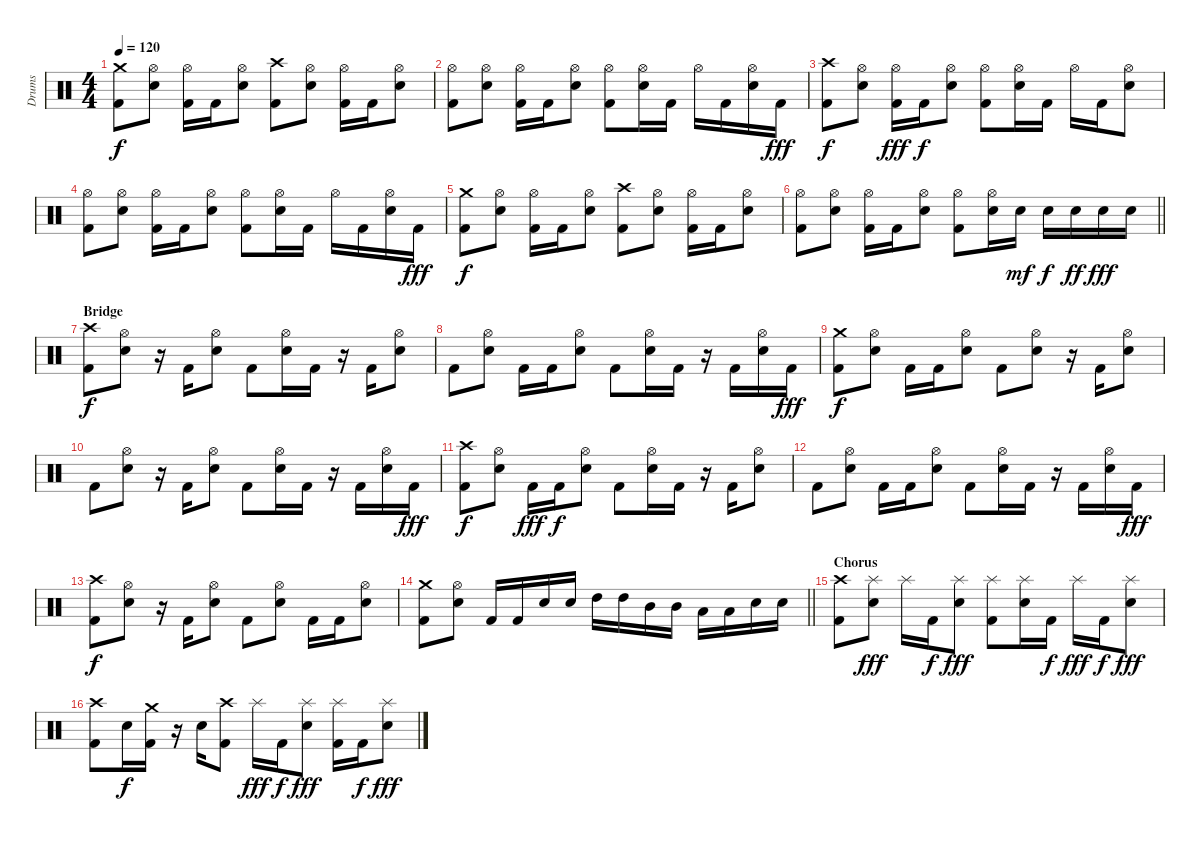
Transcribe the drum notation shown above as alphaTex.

\track ("Drums" "Drums") {instrument percussion}
\staff {score}
\articulation defaults
\ts (4 4)
\tempo 120
\clef neutral
\ks c
("Crash medium (hit)" "Kick (hit) 2").8{dy f} ("Hi-Hat (open)" "Snare (hit) 2").8 ("Hi-Hat (open)" "Kick (hit) 2").16 "Kick (hit) 2".16 ("Hi-Hat (open)" "Snare (hit) 2").8 ("Crash high (hit)" "Kick (hit) 2").8 ("Hi-Hat (open)" "Snare (hit) 2").8 ("Hi-Hat (open)" "Kick (hit) 2").16 "Kick (hit) 2".16 ("Hi-Hat (open)" "Snare (hit) 2").8 |
("Hi-Hat (open)" "Kick (hit) 2").8 ("Hi-Hat (open)" "Snare (hit) 2").8 ("Hi-Hat (open)" "Kick (hit) 2").16 "Kick (hit) 2".16 ("Hi-Hat (open)" "Snare (hit) 2").8 ("Hi-Hat (open)" "Kick (hit) 2").8 ("Hi-Hat (open)" "Snare (hit) 2").16 "Kick (hit) 2".16 "Hi-Hat (open)".16 "Kick (hit) 2".16 ("Hi-Hat (open)" "Snare (hit) 2").16 "Kick (hit) 2".16{dy fff} |
("Crash high (hit)" "Kick (hit) 2").8{dy f} ("Hi-Hat (open)" "Snare (hit) 2").8 ("Hi-Hat (open)" "Kick (hit) 2").16{dy fff} "Kick (hit) 2".16{dy f} ("Hi-Hat (open)" "Snare (hit) 2").8 ("Hi-Hat (open)" "Kick (hit) 2").8 ("Hi-Hat (open)" "Snare (hit) 2").16 "Kick (hit) 2".16 "Hi-Hat (open)".16 "Kick (hit) 2".16 ("Hi-Hat (open)" "Snare (hit) 2").8 |
("Hi-Hat (open)" "Kick (hit) 2").8 ("Hi-Hat (open)" "Snare (hit) 2").8 ("Hi-Hat (open)" "Kick (hit) 2").16 "Kick (hit) 2".16 ("Hi-Hat (open)" "Snare (hit) 2").8 ("Hi-Hat (open)" "Kick (hit) 2").8 ("Hi-Hat (open)" "Snare (hit) 2").16 "Kick (hit) 2".16 "Hi-Hat (open)".16 "Kick (hit) 2".16 ("Hi-Hat (open)" "Snare (hit) 2").16 "Kick (hit) 2".16{dy fff} |
("Crash medium (hit)" "Kick (hit) 2").8{dy f} ("Hi-Hat (open)" "Snare (hit) 2").8 ("Hi-Hat (open)" "Kick (hit) 2").16 "Kick (hit) 2".16 ("Hi-Hat (open)" "Snare (hit) 2").8 ("Crash high (hit)" "Kick (hit) 2").8 ("Hi-Hat (open)" "Snare (hit) 2").8 ("Hi-Hat (open)" "Kick (hit) 2").16 "Kick (hit) 2".16 ("Hi-Hat (open)" "Snare (hit) 2").8 |
\barLineRight lightlight
("Hi-Hat (open)" "Kick (hit) 2").8 ("Hi-Hat (open)" "Snare (hit) 2").8 ("Hi-Hat (open)" "Kick (hit) 2").16 "Kick (hit) 2".16 ("Hi-Hat (open)" "Snare (hit) 2").8 ("Hi-Hat (open)" "Kick (hit) 2").8 ("Hi-Hat (open)" "Snare (hit) 2").16 "Snare (hit) 2".16{dy mf} "Snare (hit) 2".16{dy f} "Snare (hit) 2".16{dy ff} "Snare (hit) 2".16{dy fff} "Snare (hit) 2".16 |
\section ("" "Bridge")
("Crash high (hit)" "Kick (hit) 2").8{dy f} ("Hi-Hat (open)" "Snare (hit) 2").8 r.16 "Kick (hit) 2".16 ("Hi-Hat (open)" "Snare (hit) 2").8 "Kick (hit) 2".8 ("Hi-Hat (open)" "Snare (hit) 2").16 "Kick (hit) 2".16 r.16 "Kick (hit) 2".16 ("Hi-Hat (open)" "Snare (hit) 2").8 |
"Kick (hit) 2".8 ("Hi-Hat (open)" "Snare (hit) 2").8 "Kick (hit) 2".16 "Kick (hit) 2".16 ("Hi-Hat (open)" "Snare (hit) 2").8 "Kick (hit) 2".8 ("Hi-Hat (open)" "Snare (hit) 2").16 "Kick (hit) 2".16 r.16 "Kick (hit) 2".16 ("Hi-Hat (open)" "Snare (hit) 2").16 "Kick (hit) 2".16{dy fff} |
("Crash medium (hit)" "Kick (hit) 2").8{dy f} ("Hi-Hat (open)" "Snare (hit) 2").8 "Kick (hit) 2".16 "Kick (hit) 2".16 ("Hi-Hat (open)" "Snare (hit) 2").8 "Kick (hit) 2".8 ("Hi-Hat (open)" "Snare (hit) 2").8 r.16 "Kick (hit) 2".16 ("Hi-Hat (open)" "Snare (hit) 2").8 |
"Kick (hit) 2".8 ("Hi-Hat (open)" "Snare (hit) 2").8 r.16 "Kick (hit) 2".16 ("Hi-Hat (open)" "Snare (hit) 2").8 "Kick (hit) 2".8 ("Hi-Hat (open)" "Snare (hit) 2").16 "Kick (hit) 2".16 r.16 "Kick (hit) 2".16 ("Hi-Hat (open)" "Snare (hit) 2").16 "Kick (hit) 2".16{dy fff} |
("Crash high (hit)" "Kick (hit) 2").8{dy f} ("Hi-Hat (open)" "Snare (hit) 2").8 "Kick (hit) 2".16{dy fff} "Kick (hit) 2".16{dy f} ("Hi-Hat (open)" "Snare (hit) 2").8 "Kick (hit) 2".8 ("Hi-Hat (open)" "Snare (hit) 2").16 "Kick (hit) 2".16 r.16 "Kick (hit) 2".16 ("Hi-Hat (open)" "Snare (hit) 2").8 |
"Kick (hit) 2".8 ("Hi-Hat (open)" "Snare (hit) 2").8 "Kick (hit) 2".16 "Kick (hit) 2".16 ("Hi-Hat (open)" "Snare (hit) 2").8 "Kick (hit) 2".8 ("Hi-Hat (open)" "Snare (hit) 2").16 "Kick (hit) 2".16 r.16 "Kick (hit) 2".16 ("Hi-Hat (open)" "Snare (hit) 2").16 "Kick (hit) 2".16{dy fff} |
("Crash high (hit)" "Kick (hit) 2").8{dy f} ("Hi-Hat (open)" "Snare (hit) 2").8 r.16 "Kick (hit) 2".16 ("Hi-Hat (open)" "Snare (hit) 2").8 "Kick (hit) 2".8 ("Hi-Hat (open)" "Snare (hit) 2").8 "Kick (hit) 2".16 "Kick (hit) 2".16 ("Hi-Hat (open)" "Snare (hit) 2").8 |
\barLineRight lightlight
("Crash medium (hit)" "Kick (hit) 2").8 ("Hi-Hat (open)" "Snare (hit) 2").8 "Kick (hit) 2".16 "Kick (hit) 2".16 "Snare (hit) 2".16 "Snare (hit) 2".16 "High Tom (hit)".16 "High Tom (hit)".16 "Mid Tom (hit)".16 "Mid Tom (hit)".16 "Low Tom (hit)".16 "Low Tom (hit)".16 "Snare (hit) 2".16 "Snare (hit) 2".16 |
\section ("" "Chorus")
("Crash high (hit)" "Kick (hit) 2").8 ("Splash (hit)" "Snare (hit) 2").8{dy fff} "Splash (hit)".16 "Kick (hit) 2".16{dy f} ("Splash (hit)" "Snare (hit) 2").8{dy fff} ("Splash (hit)" "Kick (hit) 2").8 ("Splash (hit)" "Snare (hit) 2").16 "Kick (hit) 2".16{dy f} "Splash (hit)".16{dy fff} "Kick (hit) 2".16{dy f} ("Splash (hit)" "Snare (hit) 2").8{dy fff} |
("Crash high (hit)" "Kick (hit) 2").8 "Snare (hit) 2".16{dy f} ("Crash medium (hit)" "Kick (hit) 2").16 r.16 "Snare (hit) 2".16 ("Crash high (hit)" "Kick (hit) 2").8 "Splash (hit)".16{dy fff} "Kick (hit) 2".16{dy f} ("Splash (hit)" "Snare (hit) 2").8{dy fff} ("Splash (hit)" "Kick (hit) 2").16 "Kick (hit) 2".16{dy f} ("Splash (hit)" "Snare (hit) 2").8{dy fff}
